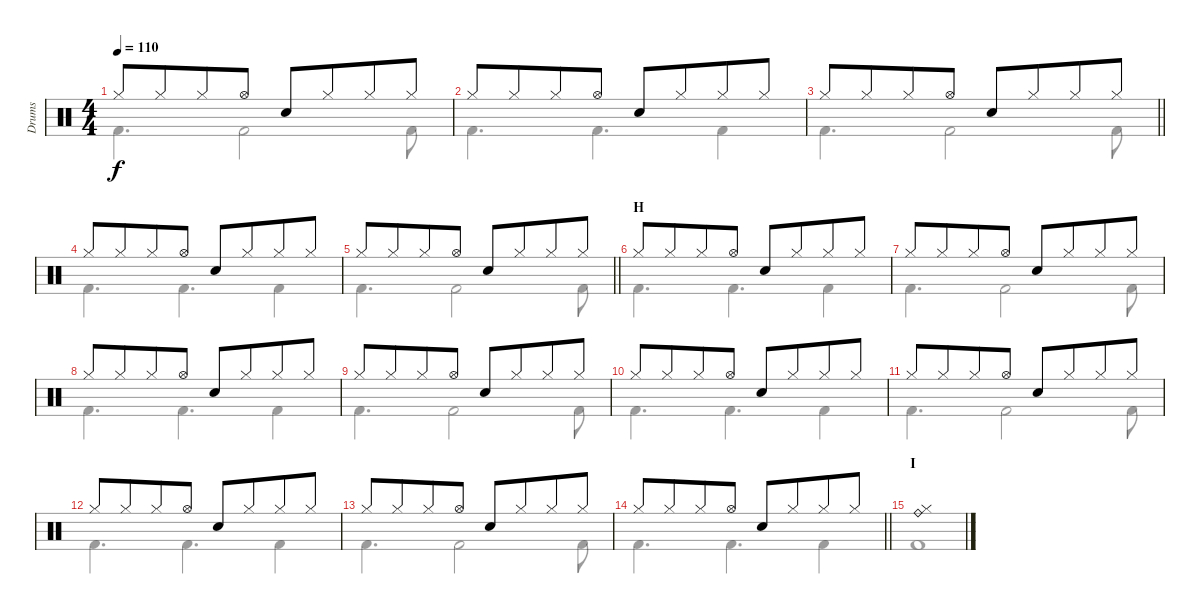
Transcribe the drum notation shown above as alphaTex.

\track ("Drums" "Drums") {instrument percussion}
\staff {score}
\articulation defaults
\voice
\ts (4 4)
\tempo 110
\clef neutral
\ks c "Hi-Hat (closed)".8{dy f} "Hi-Hat (closed)".8{beam merge} "Hi-Hat (closed)".8 "Hi-Hat (open)".8 "Snare (hit) 2".8 "Hi-Hat (closed)".8{beam merge} "Hi-Hat (closed)".8 "Hi-Hat (closed)".8
|
"Hi-Hat (closed)".8 "Hi-Hat (closed)".8{beam merge} "Hi-Hat (closed)".8 "Hi-Hat (open)".8 "Snare (hit) 2".8 "Hi-Hat (closed)".8{beam merge} "Hi-Hat (closed)".8 "Hi-Hat (closed)".8 |
\barLineRight lightlight "Hi-Hat (closed)".8 "Hi-Hat (closed)".8{beam merge} "Hi-Hat (closed)".8 "Hi-Hat (open)".8 "Snare (hit) 2".8 "Hi-Hat (closed)".8{beam merge} "Hi-Hat (closed)".8 "Hi-Hat (closed)".8
|
"Hi-Hat (closed)".8 "Hi-Hat (closed)".8{beam merge} "Hi-Hat (closed)".8 "Hi-Hat (open)".8 "Snare (hit) 2".8 "Hi-Hat (closed)".8{beam merge} "Hi-Hat (closed)".8 "Hi-Hat (closed)".8 |
\barLineRight lightlight "Hi-Hat (closed)".8 "Hi-Hat (closed)".8{beam merge} "Hi-Hat (closed)".8 "Hi-Hat (open)".8 "Snare (hit) 2".8 "Hi-Hat (closed)".8{beam merge} "Hi-Hat (closed)".8 "Hi-Hat (closed)".8
|
\section ("" "H")
"Hi-Hat (closed)".8 "Hi-Hat (closed)".8{beam merge} "Hi-Hat (closed)".8 "Hi-Hat (open)".8 "Snare (hit) 2".8 "Hi-Hat (closed)".8{beam merge} "Hi-Hat (closed)".8 "Hi-Hat (closed)".8 |
"Hi-Hat (closed)".8 "Hi-Hat (closed)".8{beam merge} "Hi-Hat (closed)".8 "Hi-Hat (open)".8 "Snare (hit) 2".8 "Hi-Hat (closed)".8{beam merge} "Hi-Hat (closed)".8 "Hi-Hat (closed)".8 |
"Hi-Hat (closed)".8 "Hi-Hat (closed)".8{beam merge} "Hi-Hat (closed)".8 "Hi-Hat (open)".8 "Snare (hit) 2".8 "Hi-Hat (closed)".8{beam merge} "Hi-Hat (closed)".8 "Hi-Hat (closed)".8 |
"Hi-Hat (closed)".8 "Hi-Hat (closed)".8{beam merge} "Hi-Hat (closed)".8 "Hi-Hat (open)".8 "Snare (hit) 2".8 "Hi-Hat (closed)".8{beam merge} "Hi-Hat (closed)".8 "Hi-Hat (closed)".8 |
"Hi-Hat (closed)".8 "Hi-Hat (closed)".8{beam merge} "Hi-Hat (closed)".8 "Hi-Hat (open)".8 "Snare (hit) 2".8 "Hi-Hat (closed)".8{beam merge} "Hi-Hat (closed)".8 "Hi-Hat (closed)".8 |
"Hi-Hat (closed)".8 "Hi-Hat (closed)".8{beam merge} "Hi-Hat (closed)".8 "Hi-Hat (open)".8 "Snare (hit) 2".8 "Hi-Hat (closed)".8{beam merge} "Hi-Hat (closed)".8 "Hi-Hat (closed)".8 |
"Hi-Hat (closed)".8 "Hi-Hat (closed)".8{beam merge} "Hi-Hat (closed)".8 "Hi-Hat (open)".8 "Snare (hit) 2".8 "Hi-Hat (closed)".8{beam merge} "Hi-Hat (closed)".8 "Hi-Hat (closed)".8 |
"Hi-Hat (closed)".8 "Hi-Hat (closed)".8{beam merge} "Hi-Hat (closed)".8 "Hi-Hat (open)".8 "Snare (hit) 2".8 "Hi-Hat (closed)".8{beam merge} "Hi-Hat (closed)".8 "Hi-Hat (closed)".8 |
\barLineRight lightlight "Hi-Hat (closed)".8 "Hi-Hat (closed)".8{beam merge} "Hi-Hat (closed)".8 "Hi-Hat (open)".8 "Snare (hit) 2".8 "Hi-Hat (closed)".8{beam merge} "Hi-Hat (closed)".8 "Hi-Hat (closed)".8
|
\section ("" "I")
("Ride (bell)" "Hi-Hat (closed)").1 |
\voice
\clef neutral
\ottava regular
\simile none
\ks c "Kick (hit) 2".4{d dy f} "Kick (hit) 2".2 "Kick (hit) 2".8
|
"Kick (hit) 2".4{d} "Kick (hit) 2".4{d} "Kick (hit) 2".4 |
\barLineRight lightlight "Kick (hit) 2".4{d} "Kick (hit) 2".2 "Kick (hit) 2".8
|
"Kick (hit) 2".4{d} "Kick (hit) 2".4{d} "Kick (hit) 2".4 |
\barLineRight lightlight "Kick (hit) 2".4{d} "Kick (hit) 2".2 "Kick (hit) 2".8
|
"Kick (hit) 2".4{d} "Kick (hit) 2".4{d} "Kick (hit) 2".4 |
"Kick (hit) 2".4{d} "Kick (hit) 2".2 "Kick (hit) 2".8 |
"Kick (hit) 2".4{d} "Kick (hit) 2".4{d} "Kick (hit) 2".4 |
"Kick (hit) 2".4{d} "Kick (hit) 2".2 "Kick (hit) 2".8 |
"Kick (hit) 2".4{d} "Kick (hit) 2".4{d} "Kick (hit) 2".4 |
"Kick (hit) 2".4{d} "Kick (hit) 2".2 "Kick (hit) 2".8 |
"Kick (hit) 2".4{d} "Kick (hit) 2".4{d} "Kick (hit) 2".4 |
"Kick (hit) 2".4{d} "Kick (hit) 2".2 "Kick (hit) 2".8 |
\barLineRight lightlight "Kick (hit) 2".4{d} "Kick (hit) 2".4{d} "Kick (hit) 2".4
|
"Kick (hit) 2".1 |
